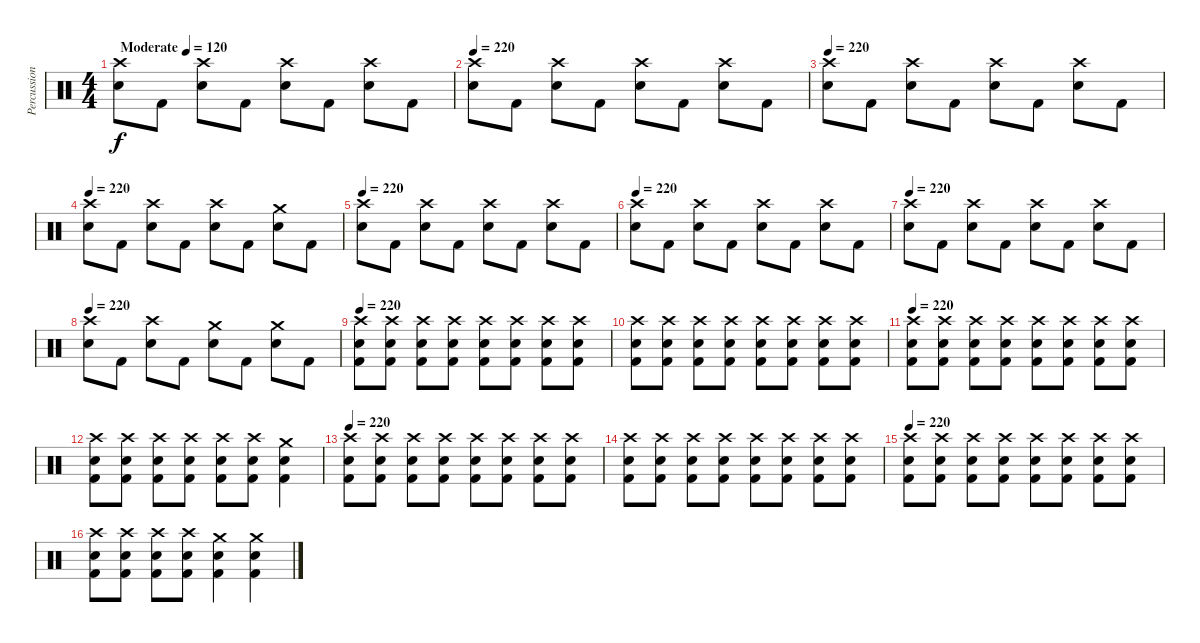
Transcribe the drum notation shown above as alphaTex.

\track ("Percussion" "Percussion") {instrument percussion}
\staff {score}
\articulation defaults
\ts (4 4)
\tempo (120 "Moderate")
\tempo 220
\tempo (120 "Moderate")
\clef neutral
\ks c
("Crash high (hit)" "Electric Snare (hit)").8{dy f} "Kick (hit) 2".8 ("Crash high (hit)" "Electric Snare (hit)").8 "Kick (hit) 2".8 ("Crash high (hit)" "Electric Snare (hit)").8 "Kick (hit) 2".8 ("Crash high (hit)" "Electric Snare (hit)").8 "Kick (hit) 2".8 |
\tempo 220
("Crash high (hit)" "Electric Snare (hit)").8 "Kick (hit) 2".8 ("Crash high (hit)" "Electric Snare (hit)").8 "Kick (hit) 2".8 ("Crash high (hit)" "Electric Snare (hit)").8 "Kick (hit) 2".8 ("Crash high (hit)" "Electric Snare (hit)").8 "Kick (hit) 2".8 |
\tempo 200
\tempo 220
("Crash high (hit)" "Electric Snare (hit)").8 "Kick (hit) 2".8 ("Crash high (hit)" "Electric Snare (hit)").8 "Kick (hit) 2".8 ("Crash high (hit)" "Electric Snare (hit)").8 "Kick (hit) 2".8 ("Crash high (hit)" "Electric Snare (hit)").8 "Kick (hit) 2".8 |
\tempo 220
("Crash high (hit)" "Electric Snare (hit)").8 "Kick (hit) 2".8 ("Crash high (hit)" "Electric Snare (hit)").8 "Kick (hit) 2".8 ("Crash high (hit)" "Electric Snare (hit)").8 "Kick (hit) 2".8 ("Crash medium (hit)" "Electric Snare (hit)").8 "Kick (hit) 2".8 |
\tempo 200
\tempo 220
("Crash high (hit)" "Electric Snare (hit)").8 "Kick (hit) 2".8 ("Crash high (hit)" "Electric Snare (hit)").8 "Kick (hit) 2".8 ("Crash high (hit)" "Electric Snare (hit)").8 "Kick (hit) 2".8 ("Crash high (hit)" "Electric Snare (hit)").8 "Kick (hit) 2".8 |
\tempo 220
("Crash high (hit)" "Electric Snare (hit)").8 "Kick (hit) 2".8 ("Crash high (hit)" "Electric Snare (hit)").8 "Kick (hit) 2".8 ("Crash high (hit)" "Electric Snare (hit)").8 "Kick (hit) 2".8 ("Crash high (hit)" "Electric Snare (hit)").8 "Kick (hit) 2".8 |
\tempo 200
\tempo 220
("Crash high (hit)" "Electric Snare (hit)").8 "Kick (hit) 2".8 ("Crash high (hit)" "Electric Snare (hit)").8 "Kick (hit) 2".8 ("Crash high (hit)" "Electric Snare (hit)").8 "Kick (hit) 2".8 ("Crash high (hit)" "Electric Snare (hit)").8 "Kick (hit) 2".8 |
\tempo 220
("Crash high (hit)" "Electric Snare (hit)").8 "Kick (hit) 2".8 ("Crash high (hit)" "Electric Snare (hit)").8 "Kick (hit) 2".8 ("Crash medium (hit)" "Electric Snare (hit)").8 "Kick (hit) 2".8 ("Crash medium (hit)" "Electric Snare (hit)").8 "Kick (hit) 2".8 |
\tempo 220
("Crash high (hit)" "Electric Snare (hit)" "Kick (hit) 2").8 ("Crash high (hit)" "Electric Snare (hit)" "Kick (hit) 2").8 ("Crash high (hit)" "Electric Snare (hit)" "Kick (hit) 2").8 ("Crash high (hit)" "Electric Snare (hit)" "Kick (hit) 2").8 ("Crash high (hit)" "Electric Snare (hit)" "Kick (hit) 2").8 ("Crash high (hit)" "Electric Snare (hit)" "Kick (hit) 2").8 ("Crash high (hit)" "Electric Snare (hit)" "Kick (hit) 2").8 ("Crash high (hit)" "Electric Snare (hit)" "Kick (hit) 2").8 |
("Crash high (hit)" "Electric Snare (hit)" "Kick (hit) 2").8 ("Crash high (hit)" "Electric Snare (hit)" "Kick (hit) 2").8 ("Crash high (hit)" "Electric Snare (hit)" "Kick (hit) 2").8 ("Crash high (hit)" "Electric Snare (hit)" "Kick (hit) 2").8 ("Crash high (hit)" "Electric Snare (hit)" "Kick (hit) 2").8 ("Crash high (hit)" "Electric Snare (hit)" "Kick (hit) 2").8 ("Crash high (hit)" "Electric Snare (hit)" "Kick (hit) 2").8 ("Crash high (hit)" "Electric Snare (hit)" "Kick (hit) 2").8 |
\tempo 220
("Crash high (hit)" "Electric Snare (hit)" "Kick (hit) 2").8 ("Crash high (hit)" "Electric Snare (hit)" "Kick (hit) 2").8 ("Crash high (hit)" "Electric Snare (hit)" "Kick (hit) 2").8 ("Crash high (hit)" "Electric Snare (hit)" "Kick (hit) 2").8 ("Crash high (hit)" "Electric Snare (hit)" "Kick (hit) 2").8 ("Crash high (hit)" "Electric Snare (hit)" "Kick (hit) 2").8 ("Crash high (hit)" "Electric Snare (hit)" "Kick (hit) 2").8 ("Crash high (hit)" "Electric Snare (hit)" "Kick (hit) 2").8 |
("Crash high (hit)" "Electric Snare (hit)" "Kick (hit) 2").8 ("Crash high (hit)" "Electric Snare (hit)" "Kick (hit) 2").8 ("Crash high (hit)" "Electric Snare (hit)" "Kick (hit) 2").8 ("Crash high (hit)" "Electric Snare (hit)" "Kick (hit) 2").8 ("Crash high (hit)" "Electric Snare (hit)" "Kick (hit) 2").8 ("Crash high (hit)" "Electric Snare (hit)" "Kick (hit) 2").8 ("Crash medium (hit)" "Electric Snare (hit)" "Kick (hit) 2").4 |
\tempo 220
("Crash high (hit)" "Electric Snare (hit)" "Kick (hit) 2").8 ("Crash high (hit)" "Electric Snare (hit)" "Kick (hit) 2").8 ("Crash high (hit)" "Electric Snare (hit)" "Kick (hit) 2").8 ("Crash high (hit)" "Electric Snare (hit)" "Kick (hit) 2").8 ("Crash high (hit)" "Electric Snare (hit)" "Kick (hit) 2").8 ("Crash high (hit)" "Electric Snare (hit)" "Kick (hit) 2").8 ("Crash high (hit)" "Electric Snare (hit)" "Kick (hit) 2").8 ("Crash high (hit)" "Electric Snare (hit)" "Kick (hit) 2").8 |
("Crash high (hit)" "Electric Snare (hit)" "Kick (hit) 2").8 ("Crash high (hit)" "Electric Snare (hit)" "Kick (hit) 2").8 ("Crash high (hit)" "Electric Snare (hit)" "Kick (hit) 2").8 ("Crash high (hit)" "Electric Snare (hit)" "Kick (hit) 2").8 ("Crash high (hit)" "Electric Snare (hit)" "Kick (hit) 2").8 ("Crash high (hit)" "Electric Snare (hit)" "Kick (hit) 2").8 ("Crash high (hit)" "Electric Snare (hit)" "Kick (hit) 2").8 ("Crash high (hit)" "Electric Snare (hit)" "Kick (hit) 2").8 |
\tempo 220
("Crash high (hit)" "Electric Snare (hit)" "Kick (hit) 2").8 ("Crash high (hit)" "Electric Snare (hit)" "Kick (hit) 2").8 ("Crash high (hit)" "Electric Snare (hit)" "Kick (hit) 2").8 ("Crash high (hit)" "Electric Snare (hit)" "Kick (hit) 2").8 ("Crash high (hit)" "Electric Snare (hit)" "Kick (hit) 2").8 ("Crash high (hit)" "Electric Snare (hit)" "Kick (hit) 2").8 ("Crash high (hit)" "Electric Snare (hit)" "Kick (hit) 2").8 ("Crash high (hit)" "Electric Snare (hit)" "Kick (hit) 2").8 |
("Crash high (hit)" "Electric Snare (hit)" "Kick (hit) 2").8 ("Crash high (hit)" "Electric Snare (hit)" "Kick (hit) 2").8 ("Crash high (hit)" "Electric Snare (hit)" "Kick (hit) 2").8 ("Crash high (hit)" "Electric Snare (hit)" "Kick (hit) 2").8 ("Crash medium (hit)" "Electric Snare (hit)" "Kick (hit) 2").4 ("Crash medium (hit)" "Electric Snare (hit)" "Kick (hit) 2").4
